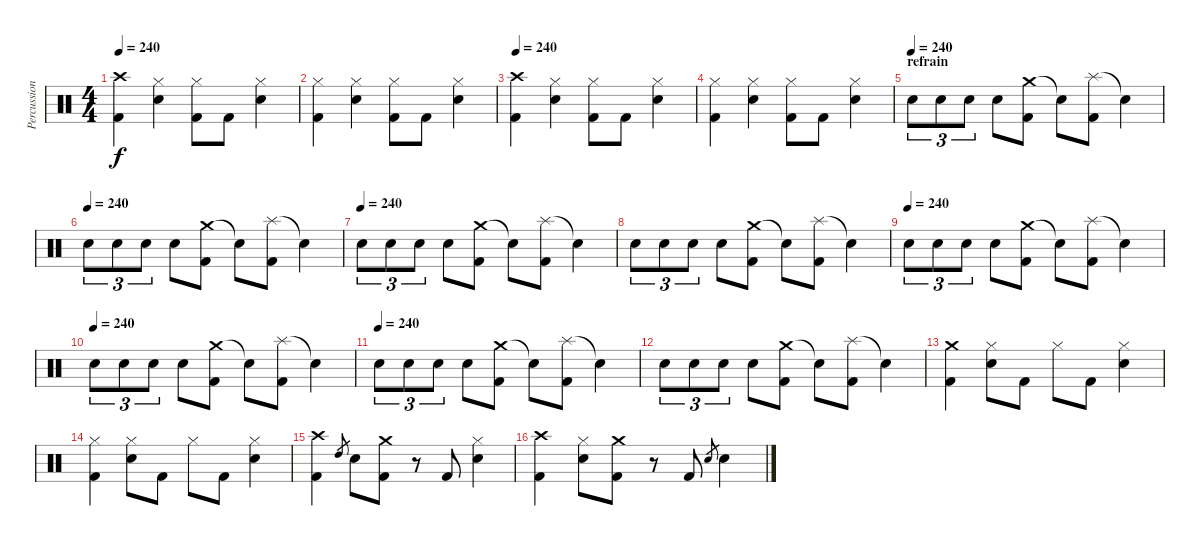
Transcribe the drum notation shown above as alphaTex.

\track ("Percussions" "Percussion") {instrument percussion}
\staff {score}
\articulation defaults
\ts (4 4)
\tempo 240
\clef neutral
\ks c
("Crash high (hit)" "Kick (hit) 2").4{dy f} ("Hi-Hat (closed)" "Electric Snare (hit)").4 ("Hi-Hat (closed)" "Kick (hit) 2").8 "Kick (hit) 2".8 ("Hi-Hat (closed)" "Electric Snare (hit)").4 |
("Hi-Hat (closed)" "Kick (hit) 2").4 ("Hi-Hat (closed)" "Electric Snare (hit)").4 ("Hi-Hat (closed)" "Kick (hit) 2").8 "Kick (hit) 2".8 ("Hi-Hat (closed)" "Electric Snare (hit)").4 |
\tempo 240
("Crash high (hit)" "Kick (hit) 2").4 ("Hi-Hat (closed)" "Electric Snare (hit)").4 ("Hi-Hat (closed)" "Kick (hit) 2").8 "Kick (hit) 2".8 ("Hi-Hat (closed)" "Electric Snare (hit)").4 |
("Hi-Hat (closed)" "Kick (hit) 2").4 ("Hi-Hat (closed)" "Electric Snare (hit)").4 ("Hi-Hat (closed)" "Kick (hit) 2").8 "Kick (hit) 2".8 ("Hi-Hat (closed)" "Electric Snare (hit)").4 |
\section ("" "refrain")
\tempo (240)
"Electric Snare (hit)".8{tu (3 2)} "Electric Snare (hit)".8{tu (3 2)} "Electric Snare (hit)".8{tu (3 2)} "Electric Snare (hit)".8 ("Crash medium (hit)" "Kick (hit) 2").8 "Snare (hit)"{t}.8 ("Splash (hit)" "Kick (hit) 2").8 "Snare (hit)"{t}.4 |
\tempo (240)
"Electric Snare (hit)".8{tu (3 2)} "Electric Snare (hit)".8{tu (3 2)} "Electric Snare (hit)".8{tu (3 2)} "Electric Snare (hit)".8 ("Crash medium (hit)" "Kick (hit) 2").8 "Snare (hit)"{t}.8 ("Splash (hit)" "Kick (hit) 2").8 "Snare (hit)"{t}.4 |
\tempo (240)
"Electric Snare (hit)".8{tu (3 2)} "Electric Snare (hit)".8{tu (3 2)} "Electric Snare (hit)".8{tu (3 2)} "Electric Snare (hit)".8 ("Crash medium (hit)" "Kick (hit) 2").8 "Snare (hit)"{t}.8 ("Splash (hit)" "Kick (hit) 2").8 "Snare (hit)"{t}.4 |
"Electric Snare (hit)".8{tu (3 2)} "Electric Snare (hit)".8{tu (3 2)} "Electric Snare (hit)".8{tu (3 2)} "Electric Snare (hit)".8 ("Crash medium (hit)" "Kick (hit) 2").8 "Snare (hit)"{t}.8 ("Splash (hit)" "Kick (hit) 2").8 "Snare (hit)"{t}.4 |
\tempo (240)
"Electric Snare (hit)".8{tu (3 2)} "Electric Snare (hit)".8{tu (3 2)} "Electric Snare (hit)".8{tu (3 2)} "Electric Snare (hit)".8 ("Crash medium (hit)" "Kick (hit) 2").8 "Snare (hit)"{t}.8 ("Splash (hit)" "Kick (hit) 2").8 "Snare (hit)"{t}.4 |
\tempo (240)
"Electric Snare (hit)".8{tu (3 2)} "Electric Snare (hit)".8{tu (3 2)} "Electric Snare (hit)".8{tu (3 2)} "Electric Snare (hit)".8 ("Crash medium (hit)" "Kick (hit) 2").8 "Snare (hit)"{t}.8 ("Splash (hit)" "Kick (hit) 2").8 "Snare (hit)"{t}.4 |
\tempo (240)
"Electric Snare (hit)".8{tu (3 2)} "Electric Snare (hit)".8{tu (3 2)} "Electric Snare (hit)".8{tu (3 2)} "Electric Snare (hit)".8 ("Crash medium (hit)" "Kick (hit) 2").8 "Snare (hit)"{t}.8 ("Splash (hit)" "Kick (hit) 2").8 "Snare (hit)"{t}.4 |
"Electric Snare (hit)".8{tu (3 2)} "Electric Snare (hit)".8{tu (3 2)} "Electric Snare (hit)".8{tu (3 2)} "Electric Snare (hit)".8 ("Crash medium (hit)" "Kick (hit) 2").8 "Snare (hit)"{t}.8 ("Splash (hit)" "Kick (hit) 2").8 "Snare (hit)"{t}.4 |
("Crash medium (hit)" "Kick (hit) 2").4 ("Hi-Hat (closed)" "Electric Snare (hit)").8 "Kick (hit) 2".8 "Hi-Hat (closed)".8 "Kick (hit) 2".8 ("Hi-Hat (closed)" "Electric Snare (hit)").4 |
("Hi-Hat (closed)" "Kick (hit) 2").4 ("Hi-Hat (closed)" "Electric Snare (hit)").8 "Kick (hit) 2".8 "Hi-Hat (closed)".8 "Kick (hit) 2".8 ("Hi-Hat (closed)" "Electric Snare (hit)").4 |
("Crash high (hit)" "Kick (hit) 2").4 "High Tom (hit)".8{gr} "Electric Snare (hit)".8 ("Crash medium (hit)" "Kick (hit) 2").8 r.8 "Kick (hit) 2".8 ("Hi-Hat (closed)" "Electric Snare (hit)").4 |
("Crash high (hit)" "Kick (hit) 2").4 ("Hi-Hat (closed)" "Electric Snare (hit)").8 ("Crash medium (hit)" "Kick (hit) 2").8 r.8 "Kick (hit) 2".8 "Electric Snare (hit)".8{gr} "Electric Snare (hit)".4
